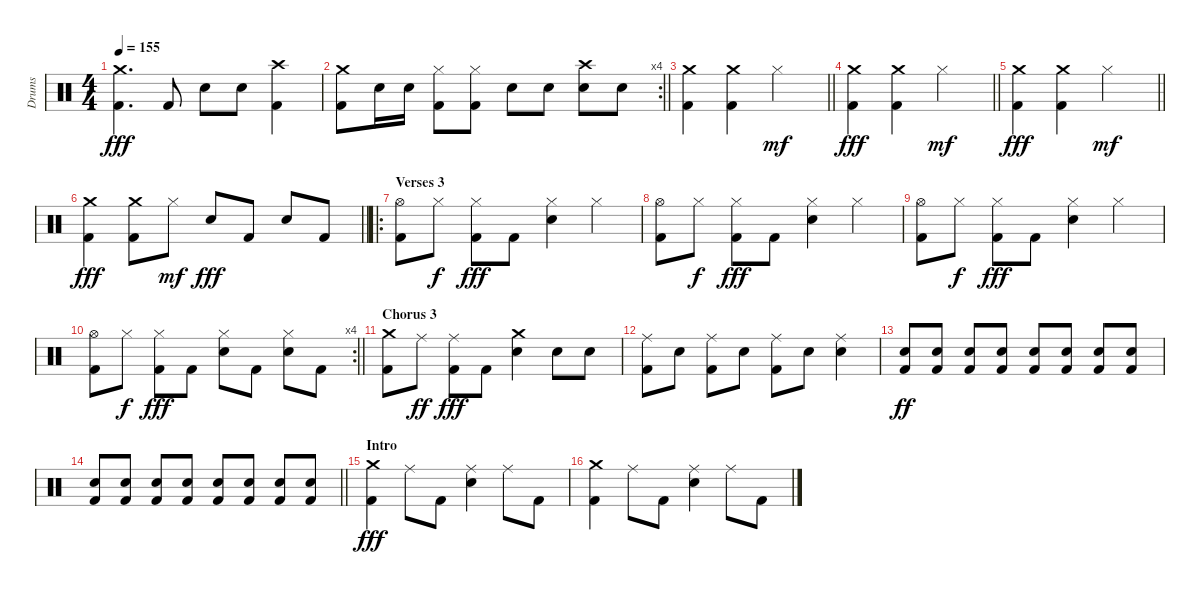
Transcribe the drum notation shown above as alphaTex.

\track ("Drums" "Drums") {instrument percussion}
\staff {score}
\articulation defaults
\ts (4 4)
\tempo 155
\clef neutral
\ks c
("Crash medium (hit)" "Kick (hit) 2").4{d dy fff} "Kick (hit) 2".8 "Electric Snare (hit)".8 "Electric Snare (hit)".8 ("Crash high (hit)" "Kick (hit) 2").4 |
\rc 4
\barLineRight lightlight
("Crash medium (hit)" "Kick (hit) 2").8 "Electric Snare (hit)".16 "Electric Snare (hit)".16 ("Hi-Hat (closed)" "Kick (hit) 2").8 ("Hi-Hat (closed)" "Kick (hit) 2").8 "Electric Snare (hit)".8 "Electric Snare (hit)".8 ("Crash high (hit)" "Electric Snare (hit)").8 "Electric Snare (hit)".8 |
\section ("" "")
\barLineRight lightlight
("Crash medium (hit)" "Kick (hit) 2").4 ("Crash medium (hit)" "Kick (hit) 2").4 "Hi-Hat (closed)".2{dy mf} |
\barLineRight lightlight
("Crash medium (hit)" "Kick (hit) 2").4{dy fff} ("Crash medium (hit)" "Kick (hit) 2").4 "Hi-Hat (closed)".2{dy mf} |
\barLineRight lightlight
("Crash medium (hit)" "Kick (hit) 2").4{dy fff} ("Crash medium (hit)" "Kick (hit) 2").4 "Hi-Hat (closed)".2{dy mf} |
\barLineRight lightlight
("Crash medium (hit)" "Kick (hit) 2").4{dy fff} ("Crash medium (hit)" "Kick (hit) 2").8 "Hi-Hat (closed)".8{dy mf} "Electric Snare (hit)".8{dy fff} "Kick (hit) 2".8 "Electric Snare (hit)".8 "Kick (hit) 2".8 |
\ro
\section ("" "Verses 3")
("Hi-Hat (open)" "Kick (hit) 2").8 "Hi-Hat (closed)".8{dy f} ("Hi-Hat (closed)" "Kick (hit) 2").8{dy fff} "Kick (hit) 2".8 ("Hi-Hat (closed)" "Electric Snare (hit)").4 "Hi-Hat (closed)".4 |
("Hi-Hat (open)" "Kick (hit) 2").8 "Hi-Hat (closed)".8{dy f} ("Hi-Hat (closed)" "Kick (hit) 2").8{dy fff} "Kick (hit) 2".8 ("Hi-Hat (closed)" "Electric Snare (hit)").4 "Hi-Hat (closed)".4 |
("Hi-Hat (open)" "Kick (hit) 2").8 "Hi-Hat (closed)".8{dy f} ("Hi-Hat (closed)" "Kick (hit) 2").8{dy fff} "Kick (hit) 2".8 ("Hi-Hat (closed)" "Electric Snare (hit)").4 "Hi-Hat (closed)".4 |
\rc 4
\barLineRight lightlight
("Hi-Hat (open)" "Kick (hit) 2").8 "Hi-Hat (closed)".8{dy f} ("Hi-Hat (closed)" "Kick (hit) 2").8{dy fff} "Kick (hit) 2".8 ("Hi-Hat (closed)" "Electric Snare (hit)").8 "Kick (hit) 2".8 ("Hi-Hat (closed)" "Electric Snare (hit)").8 "Kick (hit) 2".8 |
\section ("" "Chorus 3")
("Crash medium (hit)" "Kick (hit) 2").8 "Ride (middle)".8{dy ff} ("Ride (middle)" "Kick (hit) 2").8{dy fff} "Kick (hit) 2".8 ("Crash medium (hit)" "Electric Snare (hit)").4 "Electric Snare (hit)".8 "Electric Snare (hit)".8 |
("Ride (middle)" "Kick (hit) 2").8 "Electric Snare (hit)".8 ("Ride (middle)" "Kick (hit) 2").8 "Electric Snare (hit)".8 ("Ride (middle)" "Kick (hit) 2").8 "Electric Snare (hit)".8 ("Ride (middle)" "Electric Snare (hit)").4 |
("Electric Snare (hit)" "Kick (hit) 2").8{dy ff} ("Electric Snare (hit)" "Kick (hit) 2").8 ("Electric Snare (hit)" "Kick (hit) 2").8 ("Electric Snare (hit)" "Kick (hit) 2").8 ("Electric Snare (hit)" "Kick (hit) 2").8 ("Electric Snare (hit)" "Kick (hit) 2").8 ("Electric Snare (hit)" "Kick (hit) 2").8 ("Electric Snare (hit)" "Kick (hit) 2").8 |
\barLineRight lightlight
("Electric Snare (hit)" "Kick (hit) 2").8 ("Electric Snare (hit)" "Kick (hit) 2").8 ("Electric Snare (hit)" "Kick (hit) 2").8 ("Electric Snare (hit)" "Kick (hit) 2").8 ("Electric Snare (hit)" "Kick (hit) 2").8 ("Electric Snare (hit)" "Kick (hit) 2").8 ("Electric Snare (hit)" "Kick (hit) 2").8 ("Electric Snare (hit)" "Kick (hit) 2").8 |
\section ("" "Intro")
("Crash medium (hit)" "Kick (hit) 2").4{dy fff} "Ride (middle)".8 "Kick (hit) 2".8 ("Ride (middle)" "Electric Snare (hit)").4 "Ride (middle)".8 "Kick (hit) 2".8 |
("Crash medium (hit)" "Kick (hit) 2").4 "Ride (middle)".8 "Kick (hit) 2".8 ("Ride (middle)" "Electric Snare (hit)").4 "Ride (middle)".8 "Kick (hit) 2".8
